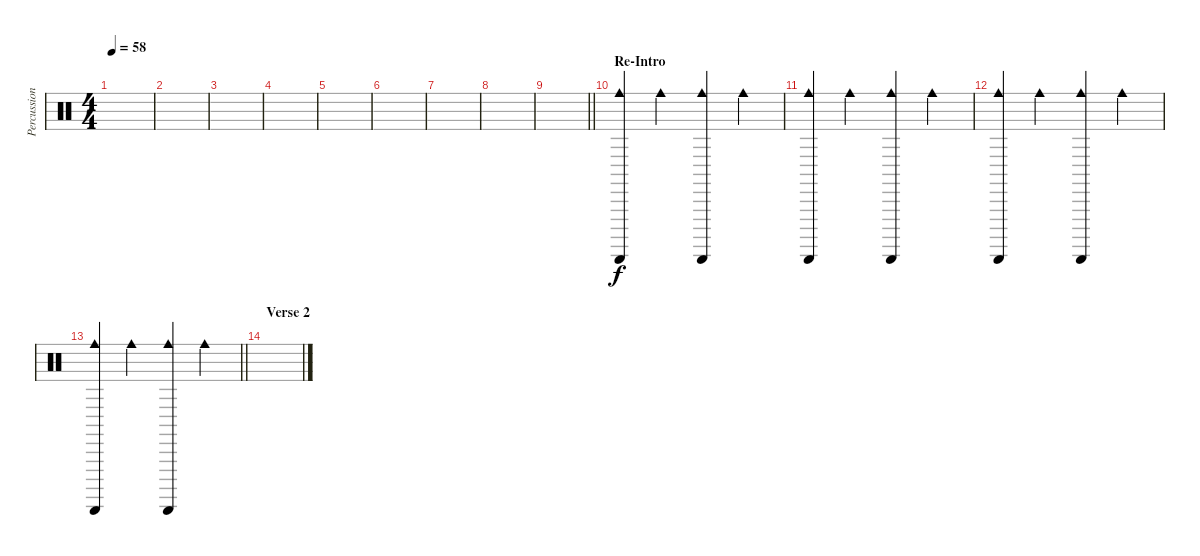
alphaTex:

\track ("Percussion 2" "Percussion") {instrument percussion}
\staff {score}
\articulation defaults
\ts (4 4)
\tempo 58
\clef neutral
\ks c
|
|
|
|
|
|
|
|
\barLineRight lightlight
|
\section ("" "Re-Intro")
("Guiro (scrap-return)" "Cowbell medium (hit)").4 "Cowbell medium (hit)".4 ("Guiro (scrap-return)" "Cowbell medium (hit)").4 "Cowbell medium (hit)".4 |
("Guiro (scrap-return)" "Cowbell medium (hit)").4 "Cowbell medium (hit)".4 ("Guiro (scrap-return)" "Cowbell medium (hit)").4 "Cowbell medium (hit)".4 |
("Guiro (scrap-return)" "Cowbell medium (hit)").4 "Cowbell medium (hit)".4 ("Guiro (scrap-return)" "Cowbell medium (hit)").4 "Cowbell medium (hit)".4 |
\barLineRight lightlight
("Guiro (scrap-return)" "Cowbell medium (hit)").4 "Cowbell medium (hit)".4 ("Guiro (scrap-return)" "Cowbell medium (hit)").4 "Cowbell medium (hit)".4 |
\section ("" "Verse 2")
